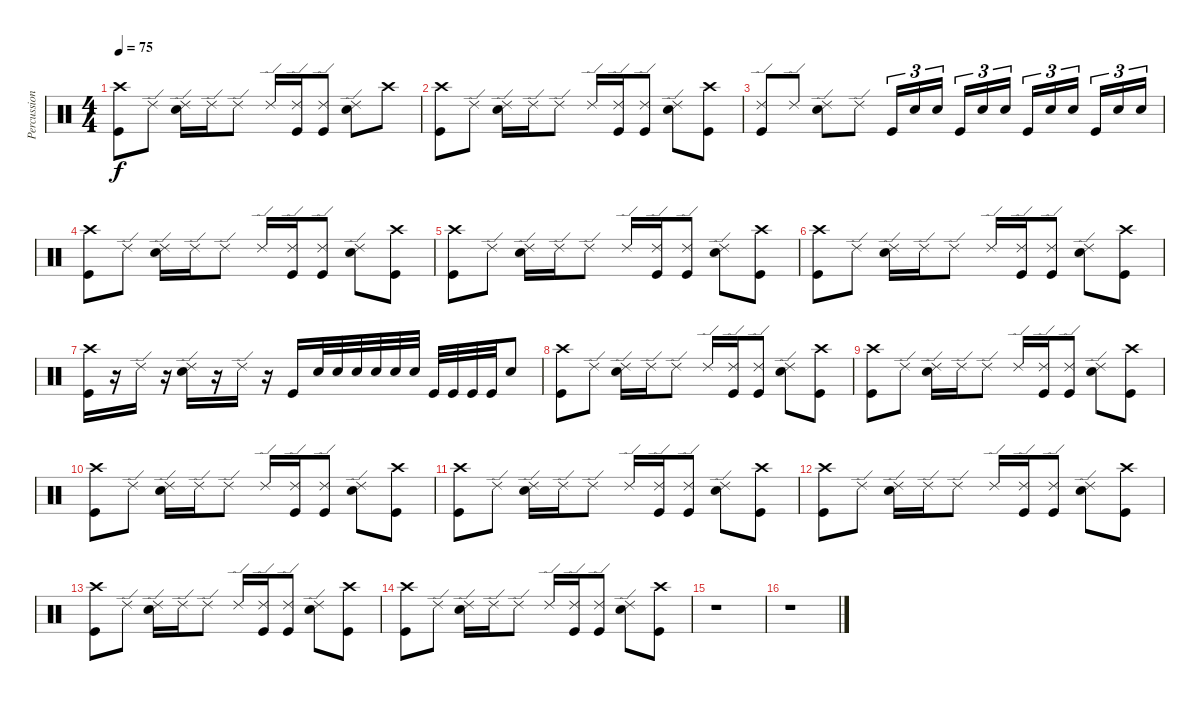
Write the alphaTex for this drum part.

\track ("Percussion" "Percussion") {instrument percussion}
\staff {score}
\articulation defaults
\ts (4 4)
\tempo 75
\clef neutral
\ks c
("Crash high (hit)" "Kick (hit)").8{dy f} "Ride (edge) 2".8 ("Ride (edge) 2" "Snare (hit) 2").16 "Ride (edge) 2".16 "Ride (edge) 2".8 "Ride (edge) 2".16 ("Ride (edge) 2" "Kick (hit)").16 ("Ride (edge) 2" "Kick (hit)").8 ("Ride (edge) 2" "Snare (hit) 2").8 "Crash high (hit)".8 |
("Crash high (hit)" "Kick (hit)").8 "Ride (edge) 2".8 ("Ride (edge) 2" "Snare (hit) 2").16 "Ride (edge) 2".16 "Ride (edge) 2".8 "Ride (edge) 2".16 ("Ride (edge) 2" "Kick (hit)").16 ("Ride (edge) 2" "Kick (hit)").8 ("Ride (edge) 2" "Snare (hit) 2").8 ("Crash high (hit)" "Kick (hit)").8 |
("Ride (edge) 2" "Kick (hit)").8 "Ride (edge) 2".8 ("Ride (edge) 2" "Snare (hit) 2").8 "Ride (edge) 2".8 "Kick (hit)".16{tu (3 2)} "Snare (hit) 2".16{tu (3 2)} "Snare (hit) 2".16{tu (3 2)} "Kick (hit)".16{tu (3 2)} "Snare (hit) 2".16{tu (3 2)} "Snare (hit) 2".16{tu (3 2)} "Kick (hit)".16{tu (3 2)} "Snare (hit) 2".16{tu (3 2)} "Snare (hit) 2".16{tu (3 2)} "Kick (hit)".16{tu (3 2)} "Snare (hit) 2".16{tu (3 2)} "Snare (hit) 2".16{tu (3 2)} |
("Crash high (hit)" "Kick (hit)").8 "Ride (edge) 2".8 ("Ride (edge) 2" "Snare (hit) 2").16 "Ride (edge) 2".16 "Ride (edge) 2".8 "Ride (edge) 2".16 ("Ride (edge) 2" "Kick (hit)").16 ("Ride (edge) 2" "Kick (hit)").8 ("Ride (edge) 2" "Snare (hit) 2").8 ("Crash high (hit)" "Kick (hit)").8 |
("Crash high (hit)" "Kick (hit)").8 "Ride (edge) 2".8 ("Ride (edge) 2" "Snare (hit) 2").16 "Ride (edge) 2".16 "Ride (edge) 2".8 "Ride (edge) 2".16 ("Ride (edge) 2" "Kick (hit)").16 ("Ride (edge) 2" "Kick (hit)").8 ("Ride (edge) 2" "Snare (hit) 2").8 ("Crash high (hit)" "Kick (hit)").8 |
("Crash high (hit)" "Kick (hit)").8 "Ride (edge) 2".8 ("Ride (edge) 2" "Snare (hit) 2").16 "Ride (edge) 2".16 "Ride (edge) 2".8 "Ride (edge) 2".16 ("Ride (edge) 2" "Kick (hit)").16 ("Ride (edge) 2" "Kick (hit)").8 ("Ride (edge) 2" "Snare (hit) 2").8 ("Crash high (hit)" "Kick (hit)").8 |
("Crash high (hit)" "Kick (hit)").16 r.16 "Ride (edge) 2".16 r.16 ("Ride (edge) 2" "Snare (hit) 2").16 r.16 "Ride (edge) 2".16 r.16 "Kick (hit)".16 "Snare (hit) 2".32 "Snare (hit) 2".32 "Snare (hit) 2".32 "Snare (hit) 2".32 "Snare (hit) 2".32 "Snare (hit) 2".32 "Kick (hit)".32 "Kick (hit)".32 "Kick (hit)".32 "Kick (hit)".32 "Snare (hit) 2".8 |
("Crash high (hit)" "Kick (hit)").8 "Ride (edge) 2".8 ("Ride (edge) 2" "Snare (hit) 2").16 "Ride (edge) 2".16 "Ride (edge) 2".8 "Ride (edge) 2".16 ("Ride (edge) 2" "Kick (hit)").16 ("Ride (edge) 2" "Kick (hit)").8 ("Ride (edge) 2" "Snare (hit) 2").8 ("Crash high (hit)" "Kick (hit)").8 |
("Crash high (hit)" "Kick (hit)").8 "Ride (edge) 2".8 ("Ride (edge) 2" "Snare (hit) 2").16 "Ride (edge) 2".16 "Ride (edge) 2".8 "Ride (edge) 2".16 ("Ride (edge) 2" "Kick (hit)").16 ("Ride (edge) 2" "Kick (hit)").8 ("Ride (edge) 2" "Snare (hit) 2").8 ("Crash high (hit)" "Kick (hit)").8 |
("Crash high (hit)" "Kick (hit)").8 "Ride (edge) 2".8 ("Ride (edge) 2" "Snare (hit) 2").16 "Ride (edge) 2".16 "Ride (edge) 2".8 "Ride (edge) 2".16 ("Ride (edge) 2" "Kick (hit)").16 ("Ride (edge) 2" "Kick (hit)").8 ("Ride (edge) 2" "Snare (hit) 2").8 ("Crash high (hit)" "Kick (hit)").8 |
("Crash high (hit)" "Kick (hit)").8 "Ride (edge) 2".8 ("Ride (edge) 2" "Snare (hit) 2").16 "Ride (edge) 2".16 "Ride (edge) 2".8 "Ride (edge) 2".16 ("Ride (edge) 2" "Kick (hit)").16 ("Ride (edge) 2" "Kick (hit)").8 ("Ride (edge) 2" "Snare (hit) 2").8 ("Crash high (hit)" "Kick (hit)").8 |
("Crash high (hit)" "Kick (hit)").8 "Ride (edge) 2".8 ("Ride (edge) 2" "Snare (hit) 2").16 "Ride (edge) 2".16 "Ride (edge) 2".8 "Ride (edge) 2".16 ("Ride (edge) 2" "Kick (hit)").16 ("Ride (edge) 2" "Kick (hit)").8 ("Ride (edge) 2" "Snare (hit) 2").8 ("Crash high (hit)" "Kick (hit)").8 |
("Crash high (hit)" "Kick (hit)").8 "Ride (edge) 2".8 ("Ride (edge) 2" "Snare (hit) 2").16 "Ride (edge) 2".16 "Ride (edge) 2".8 "Ride (edge) 2".16 ("Ride (edge) 2" "Kick (hit)").16 ("Ride (edge) 2" "Kick (hit)").8 ("Ride (edge) 2" "Snare (hit) 2").8 ("Crash high (hit)" "Kick (hit)").8 |
("Crash high (hit)" "Kick (hit)").8 "Ride (edge) 2".8 ("Ride (edge) 2" "Snare (hit) 2").16 "Ride (edge) 2".16 "Ride (edge) 2".8 "Ride (edge) 2".16 ("Ride (edge) 2" "Kick (hit)").16 ("Ride (edge) 2" "Kick (hit)").8 ("Ride (edge) 2" "Snare (hit) 2").8 ("Crash high (hit)" "Kick (hit)").8 |
r.1 |
r.1
